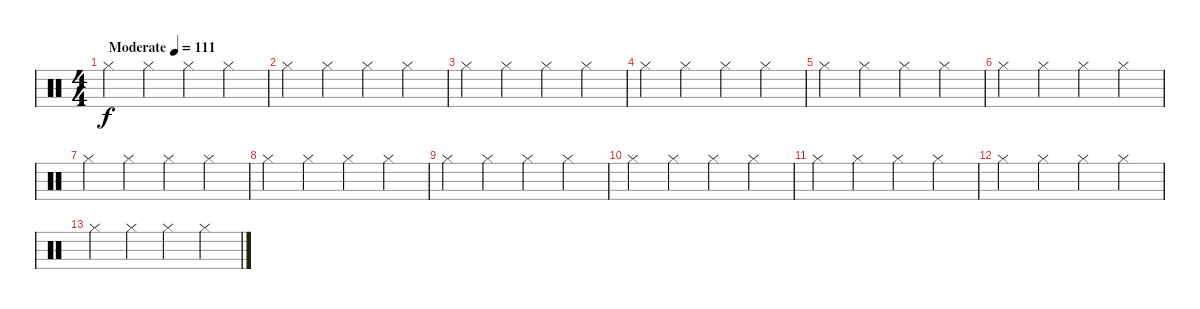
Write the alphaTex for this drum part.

\track "" {instrument percussion}
\staff {score}
\articulation defaults
\ts (4 4)
\tempo (111 "Moderate")
\clef neutral
\ks c "Hi-Hat (closed)".4{dy f} "Hi-Hat (closed)".4 "Hi-Hat (closed)".4 "Hi-Hat (closed)".4
|
"Hi-Hat (closed)".4 "Hi-Hat (closed)".4 "Hi-Hat (closed)".4 "Hi-Hat (closed)".4 |
"Hi-Hat (closed)".4{txt ""} "Hi-Hat (closed)".4 "Hi-Hat (closed)".4 "Hi-Hat (closed)".4 |
"Hi-Hat (closed)".4 "Hi-Hat (closed)".4 "Hi-Hat (closed)".4 "Hi-Hat (closed)".4 |
"Hi-Hat (closed)".4 "Hi-Hat (closed)".4 "Hi-Hat (closed)".4 "Hi-Hat (closed)".4 |
"Hi-Hat (closed)".4 "Hi-Hat (closed)".4 "Hi-Hat (closed)".4 "Hi-Hat (closed)".4 |
"Hi-Hat (closed)".4 "Hi-Hat (closed)".4 "Hi-Hat (closed)".4 "Hi-Hat (closed)".4 |
"Hi-Hat (closed)".4 "Hi-Hat (closed)".4 "Hi-Hat (closed)".4 "Hi-Hat (closed)".4 |
"Hi-Hat (closed)".4 "Hi-Hat (closed)".4 "Hi-Hat (closed)".4 "Hi-Hat (closed)".4 |
"Hi-Hat (closed)".4 "Hi-Hat (closed)".4 "Hi-Hat (closed)".4 "Hi-Hat (closed)".4 |
"Hi-Hat (closed)".4 "Hi-Hat (closed)".4 "Hi-Hat (closed)".4 "Hi-Hat (closed)".4 |
"Hi-Hat (closed)".4 "Hi-Hat (closed)".4 "Hi-Hat (closed)".4 "Hi-Hat (closed)".4 |
"Hi-Hat (closed)".4 "Hi-Hat (closed)".4 "Hi-Hat (closed)".4 "Hi-Hat (closed)".4
